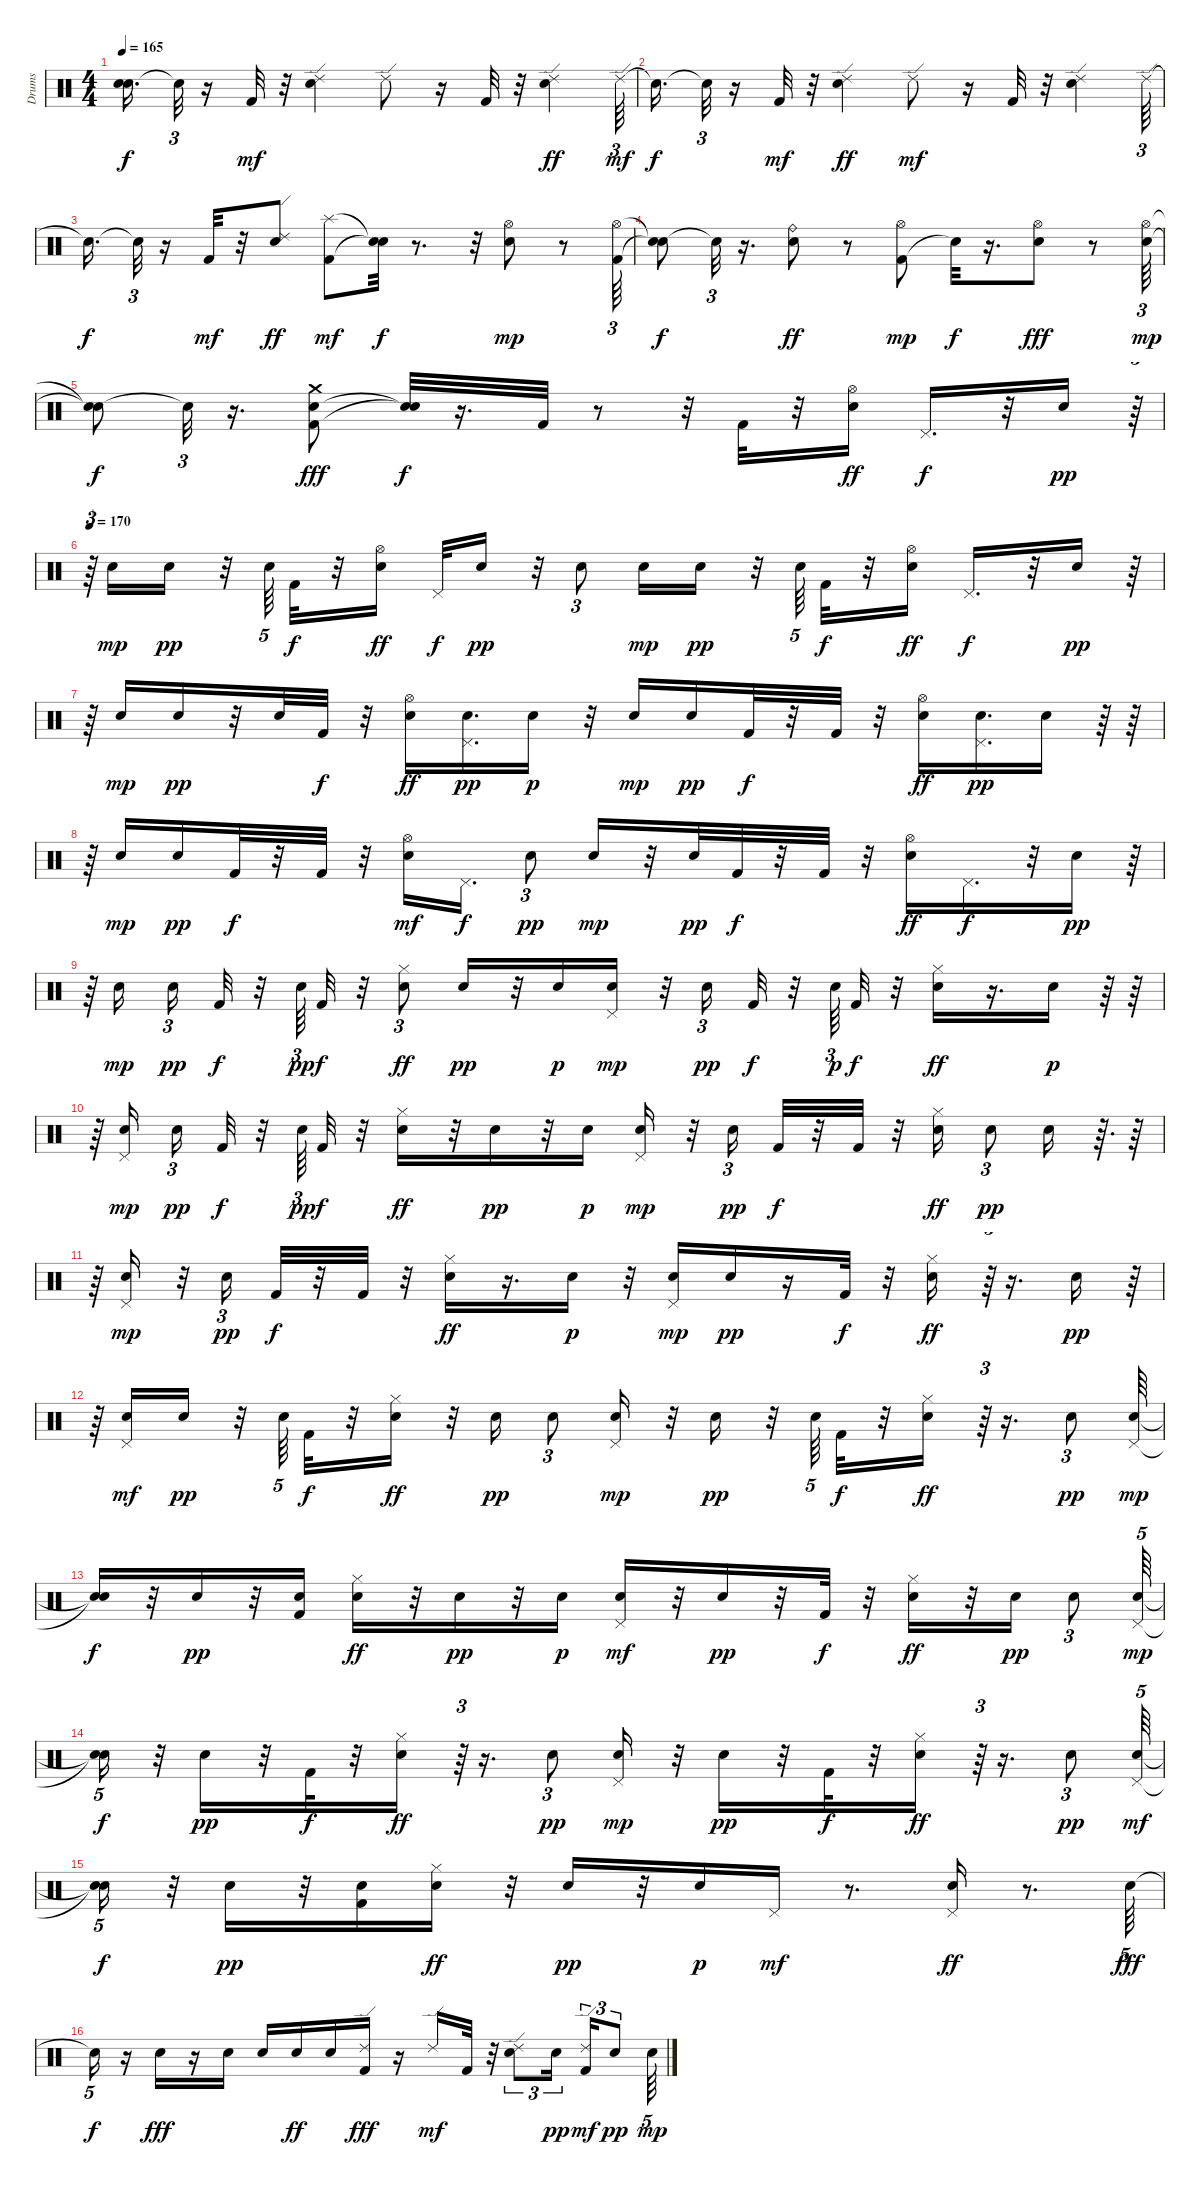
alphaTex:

\track ("Drums" "Drums") {instrument percussion}
\staff {score}
\articulation defaults
\ts (4 4)
\tempo 165
\clef neutral
\ks c
("Snare (hit)"{t} "Snare (hit)"{t}).16{d dy f} "Snare (hit)"{t}.32{tu (3 2)} r.16 "Kick (hit) 2".32{dy mf} r.32 ("Snare (hit) 2" "Ride (edge) 2").4 "Ride (edge) 2".8 r.16 "Kick (hit) 2".32 r.32 ("Ride (edge) 2" "Snare (hit) 2").4{dy ff} "Ride (edge) 2".64{tu (3 2) dy mf} |
"Snare (hit)"{t}.16{d dy f} "Snare (hit)"{t}.32{tu (3 2)} r.16 "Kick (hit) 2".32{dy mf} r.32 ("Ride (edge) 2" "Snare (hit) 2").4{dy ff} "Ride (edge) 2".8{dy mf} r.16 "Kick (hit) 2".32 r.32 ("Snare (hit) 2" "Ride (edge) 2").4 "Ride (edge) 2".64{tu (3 2)} |
"Snare (hit)"{t}.16{d dy f} "Snare (hit)"{t}.32{tu (3 2)} r.16 "Kick (hit) 2".32{dy mf} r.32 ("Ride (edge) 2" "Snare (hit) 2").8{dy ff} ("Kick (hit) 2" "Splash (hit)").8{dy mf} ("Snare (hit)"{t} "Snare (hit)"{t}).32{dy f} r.8{d} r.32 ("Snare (hit) 2" "Hi-Hat (open)").8{dy mp} r.8 ("Kick (hit) 2" "Hi-Hat (open)").64{tu (3 2)} |
("Snare (hit)"{t} "Snare (hit)"{t}).8{dy f} "Snare (hit)"{t}.32{tu (3 2)} r.16{d} ("Ride (bell)" "Snare (hit) 2").8{dy ff} r.8 ("Kick (hit) 2" "Hi-Hat (open)").8{dy mp} "Snare (hit)"{t}.32{dy f} r.16{d} ("Hi-Hat (open)" "Snare (hit) 2").8{dy fff} r.8 ("Hi-Hat (open)" "Snare (hit) 2").64{tu (3 2) dy mp} |
("Snare (hit)"{t} "Snare (hit)"{t}).8{dy f} "Snare (hit)"{t}.32{tu (3 2)} r.16{d} ("Snare (hit) 2" "Kick (hit) 2" "Crash medium (hit)").8{dy fff} ("Snare (hit)"{t} "Snare (hit)"{t}).32{dy f} r.16{d} "Kick (hit) 2".32 r.8 r.32 "Kick (hit) 2".32{volume 10} r.32 ("Hi-Hat (open)" "Snare (hit) 2").16{dy ff} "Pedal Hi-Hat (hit)".16{d dy f} r.32 "Snare (hit) 2".16{dy pp} r.64{tu (3 2)} |
\tempo 170
r.64{tu (3 2)} "Snare (hit) 2".16{dy mp} "Snare (hit) 2".16{dy pp} r.32 "Snare (hit) 2".64{tu (5 4)} "Kick (hit) 2".32{dy f} r.32 ("Snare (hit) 2" "Hi-Hat (open)").16{dy ff} "Pedal Hi-Hat (hit)".32{dy f} "Snare (hit) 2".16{dy pp} r.32 "Snare (hit) 2".8{tu (3 2)} "Snare (hit) 2".16{dy mp} "Snare (hit) 2".16{dy pp} r.32 "Snare (hit) 2".64{tu (5 4)} "Kick (hit) 2".32{dy f} r.32 ("Hi-Hat (open)" "Snare (hit) 2").16{dy ff} "Pedal Hi-Hat (hit)".16{d dy f} r.32 "Snare (hit) 2".16{dy pp} r.64 |
r.64 "Snare (hit) 2".16{dy mp} "Snare (hit) 2".16{dy pp} r.32 "Snare (hit) 2".32 "Kick (hit) 2".32{dy f} r.32 ("Hi-Hat (open)" "Snare (hit) 2").16{dy ff} ("Pedal Hi-Hat (hit)" "Snare (hit) 2").16{d dy pp} "Snare (hit) 2".16{dy p} r.32 "Snare (hit) 2".16{dy mp} "Snare (hit) 2".16{dy pp} "Kick (hit) 2".32{dy f} r.32 "Kick (hit) 2".32 r.32 ("Snare (hit) 2" "Hi-Hat (open)").16{dy ff} ("Pedal Hi-Hat (hit)" "Snare (hit) 2").16{d dy pp} "Snare (hit) 2".16 r.64 r.64 |
r.64 "Snare (hit) 2".16{dy mp} "Snare (hit) 2".16{dy pp} "Kick (hit) 2".32{dy f} r.32 "Kick (hit) 2".32 r.32 ("Snare (hit) 2" "Hi-Hat (open)").16{dy mf} "Pedal Hi-Hat (hit)".16{d dy f} "Snare (hit) 2".8{tu (3 2) dy pp} "Snare (hit) 2".16{dy mp} r.32 "Snare (hit) 2".32{dy pp} "Kick (hit) 2".32{dy f} r.32 "Kick (hit) 2".32 r.32 ("Hi-Hat (open)" "Snare (hit) 2").16{dy ff} "Pedal Hi-Hat (hit)".16{d dy f} r.32 "Snare (hit) 2".16{dy pp} r.64 |
r.64 "Snare (hit) 2".16{dy mp} "Snare (hit) 2".16{tu (3 2) dy pp} "Kick (hit) 2".32{dy f} r.32 "Snare (hit) 2".64{tu (3 2) dy pp} "Kick (hit) 2".32{dy f} r.32 ("Snare (hit) 2" "Hi-Hat (closed)").8{tu (3 2) dy ff} "Snare (hit) 2".16{dy pp} r.32 "Snare (hit) 2".16{dy p} ("Pedal Hi-Hat (hit)" "Snare (hit) 2").16{dy mp} r.32 "Snare (hit) 2".16{tu (3 2) dy pp} "Kick (hit) 2".32{dy f} r.32 "Snare (hit) 2".64{tu (3 2) dy p} "Kick (hit) 2".32{dy f} r.32 ("Snare (hit) 2" "Hi-Hat (closed)").16{dy ff} r.16{d} "Snare (hit) 2".16{dy p} r.64 r.64 |
r.64 ("Pedal Hi-Hat (hit)" "Snare (hit) 2").16{dy mp} "Snare (hit) 2".16{tu (3 2) dy pp} "Kick (hit) 2".32{dy f} r.32 "Snare (hit) 2".64{tu (3 2) dy pp} "Kick (hit) 2".32{dy f} r.32 ("Snare (hit) 2" "Hi-Hat (closed)").16{dy ff} r.32 "Snare (hit) 2".16{dy pp} r.32 "Snare (hit) 2".16{dy p} ("Pedal Hi-Hat (hit)" "Snare (hit) 2").16{dy mp} r.32 "Snare (hit) 2".16{tu (3 2) dy pp} "Kick (hit) 2".32{dy f} r.32 "Kick (hit) 2".32 r.32 ("Snare (hit) 2" "Hi-Hat (closed)").16{dy ff} "Snare (hit) 2".8{tu (3 2) dy pp} "Snare (hit) 2".16 r.64{d} r.64 |
r.64 ("Pedal Hi-Hat (hit)" "Snare (hit) 2").16{dy mp} r.32 "Snare (hit) 2".16{tu (3 2) dy pp} "Kick (hit) 2".32{dy f} r.32 "Kick (hit) 2".32 r.32 ("Snare (hit) 2" "Hi-Hat (closed)").16{dy ff} r.16{d} "Snare (hit) 2".16{dy p} r.32 ("Pedal Hi-Hat (hit)" "Snare (hit) 2").16{dy mp} "Snare (hit) 2".16{dy pp} r.16 "Kick (hit) 2".32{dy f} r.32 ("Snare (hit) 2" "Hi-Hat (closed)").16{dy ff} r.64{tu (3 2)} r.16{d} "Snare (hit) 2".16{dy pp} r.64 |
r.64 ("Snare (hit) 2" "Pedal Hi-Hat (hit)").16{dy mf} "Snare (hit) 2".16{dy pp} r.32 "Snare (hit) 2".64{tu (5 4)} "Kick (hit) 2".32{dy f} r.32 ("Snare (hit) 2" "Hi-Hat (closed)").16{dy ff} r.32 "Snare (hit) 2".16{dy pp} "Snare (hit) 2".8{tu (3 2)} ("Pedal Hi-Hat (hit)" "Snare (hit) 2").16{dy mp} r.32 "Snare (hit) 2".16{dy pp} r.32 "Snare (hit) 2".64{tu (5 4)} "Kick (hit) 2".32{dy f} r.32 ("Hi-Hat (closed)" "Snare (hit) 2").16{dy ff} r.64{tu (3 2)} r.16{d} "Snare (hit) 2".8{tu (3 2) dy pp} ("Pedal Hi-Hat (hit)" "Snare (hit) 2").64{dy mp} |
("Snare (hit)"{t} "Snare (hit)"{t}).16{dy f} r.32 "Snare (hit) 2".16{dy pp} r.32 ("Snare (hit) 2" "Kick (hit) 2").16 ("Hi-Hat (closed)" "Snare (hit) 2").16{dy ff} r.32 "Snare (hit) 2".16{dy pp} r.32 "Snare (hit) 2".16{dy p} ("Snare (hit) 2" "Pedal Hi-Hat (hit)").16{dy mf} r.32 "Snare (hit) 2".16{dy pp} r.32 "Kick (hit) 2".32{dy f} r.32 ("Snare (hit) 2" "Hi-Hat (closed)").16{dy ff} r.32 "Snare (hit) 2".16{dy pp} "Snare (hit) 2".8{tu (3 2)} ("Pedal Hi-Hat (hit)" "Snare (hit) 2").64{tu (5 4) dy mp} |
("Snare (hit)"{t} "Snare (hit)"{t}).16{tu (5 4) dy f} r.32 "Snare (hit) 2".16{dy pp} r.32 "Kick (hit) 2".32{dy f} r.32 ("Hi-Hat (closed)" "Snare (hit) 2").16{dy ff} r.64{tu (3 2)} r.16{d} "Snare (hit) 2".8{tu (3 2) dy pp} ("Pedal Hi-Hat (hit)" "Snare (hit) 2").16{dy mp} r.32 "Snare (hit) 2".16{dy pp} r.32 "Kick (hit) 2".32{dy f} r.32 ("Hi-Hat (closed)" "Snare (hit) 2").16{dy ff} r.64{tu (3 2)} r.16{d} "Snare (hit) 2".8{tu (3 2) dy pp} ("Snare (hit) 2" "Pedal Hi-Hat (hit)").64{tu (5 4) dy mf} |
("Snare (hit)"{t} "Snare (hit)"{t}).16{tu (5 4) dy f} r.32 "Snare (hit) 2".16{dy pp} r.32 ("Snare (hit) 2" "Kick (hit) 2").16 ("Hi-Hat (closed)" "Snare (hit) 2").16{dy ff} r.32 "Snare (hit) 2".16{dy pp} r.32 "Snare (hit) 2".16{dy p} "Pedal Hi-Hat (hit)".16{dy mf} r.8{d} ("Pedal Hi-Hat (hit)" "Snare (hit) 2").16{dy ff} r.8{d} "Snare (hit) 2".64{tu (5 4) dy fff volume 11} |
"Snare (hit)"{t}.16{tu (5 4) dy f} r.16 "Snare (hit) 2".16{dy fff} r.16 "Snare (hit) 2".16 "Snare (hit) 2".16 "Snare (hit) 2".16{dy ff} "Snare (hit) 2".16 ("Ride (edge) 2" "Kick (hit) 2").16{dy fff} r.16 "Ride (edge) 2".16{dy mf} "Kick (hit) 2".32 r.32 ("Snare (hit) 2" "Ride (edge) 2").8{tu (3 2)} "Snare (hit) 2".16{tu (3 2) dy pp} ("Kick (hit) 2" "Ride (edge) 2").16{tu (3 2) dy mf} "Snare (hit) 2".8{tu (3 2) dy pp} "Snare (hit) 2".64{tu (5 4) dy mp}
